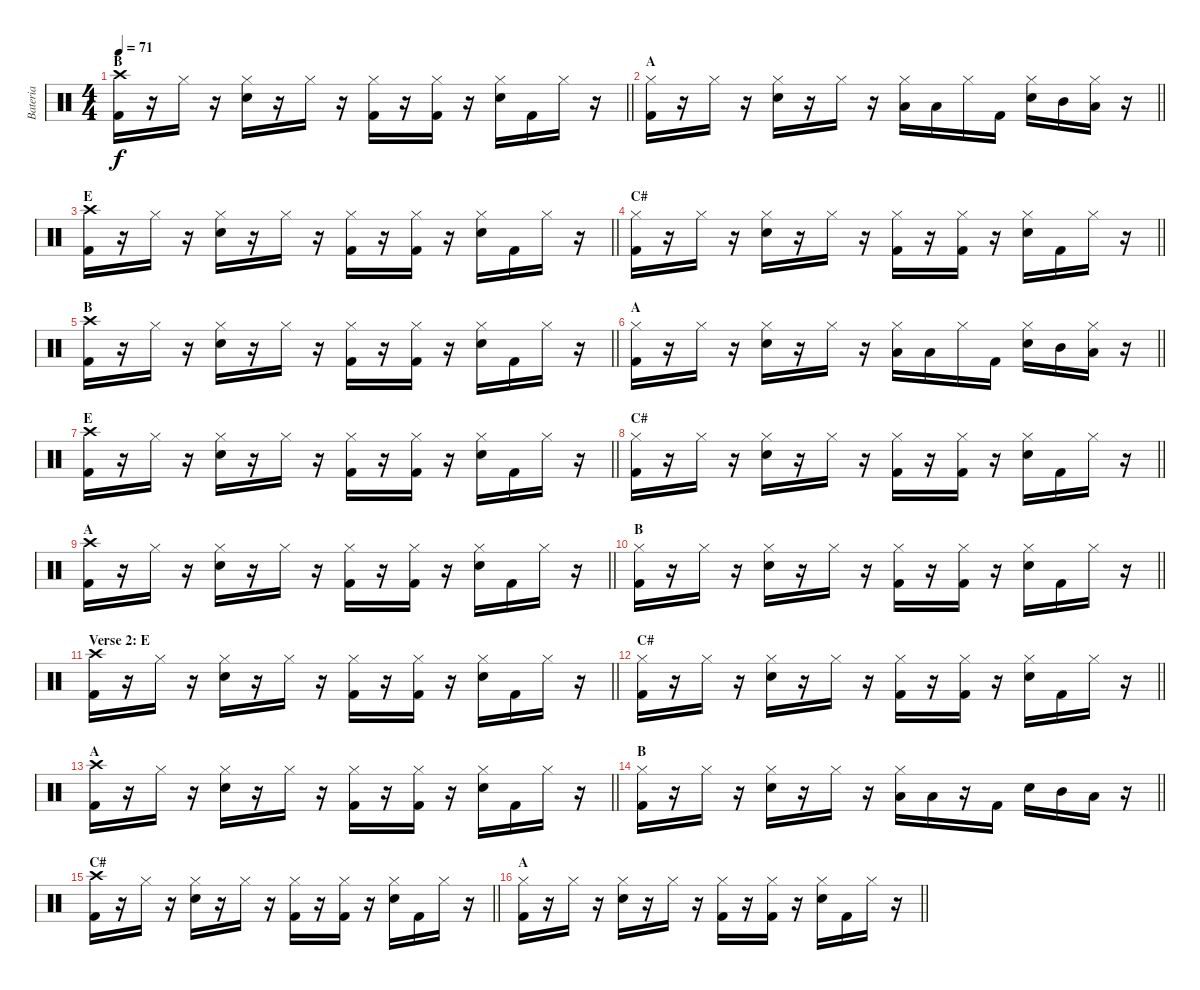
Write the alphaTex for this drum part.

\track ("Bateria" "Bateria") {instrument percussion}
\staff {score}
\articulation defaults
\ts (4 4)
\section ("" "B")
\tempo 71
\clef neutral
\barLineRight lightlight
\ks c
("Crash high (hit)" "Kick (hit) 2").16{dy f} r.16 "Hi-Hat (closed)".16 r.16 ("Hi-Hat (closed)" "Electric Snare (hit)").16 r.16 "Hi-Hat (closed)".16 r.16 ("Hi-Hat (closed)" "Kick (hit) 2").16 r.16 ("Hi-Hat (closed)" "Kick (hit) 2").16 r.16 ("Hi-Hat (closed)" "Electric Snare (hit)").16 "Kick (hit) 2".16 "Hi-Hat (closed)".16 r.16 |
\section ("" "A")
\barLineRight lightlight
("Hi-Hat (closed)" "Kick (hit) 2").16 r.16 "Hi-Hat (closed)".16 r.16 ("Hi-Hat (closed)" "Electric Snare (hit)").16 r.16 "Hi-Hat (closed)".16 r.16 ("Hi-Hat (closed)" "Low Floor Tom (hit)").16 "Low Floor Tom (hit)".16 "Hi-Hat (closed)".16 "Kick (hit) 2".16 ("Hi-Hat (closed)" "Electric Snare (hit)").16 "Mid Tom (hit)".16 ("Hi-Hat (closed)" "Low Floor Tom (hit)").16 r.16 |
\section ("" "E")
\barLineRight lightlight
("Crash high (hit)" "Kick (hit) 2").16 r.16 "Hi-Hat (closed)".16 r.16 ("Hi-Hat (closed)" "Electric Snare (hit)").16 r.16 "Hi-Hat (closed)".16 r.16 ("Hi-Hat (closed)" "Kick (hit) 2").16 r.16 ("Hi-Hat (closed)" "Kick (hit) 2").16 r.16 ("Hi-Hat (closed)" "Electric Snare (hit)").16 "Kick (hit) 2".16 "Hi-Hat (closed)".16 r.16 |
\section ("" "C#")
\barLineRight lightlight
("Hi-Hat (closed)" "Kick (hit) 2").16 r.16 "Hi-Hat (closed)".16 r.16 ("Hi-Hat (closed)" "Electric Snare (hit)").16 r.16 "Hi-Hat (closed)".16 r.16 ("Hi-Hat (closed)" "Kick (hit) 2").16 r.16 ("Hi-Hat (closed)" "Kick (hit) 2").16 r.16 ("Hi-Hat (closed)" "Electric Snare (hit)").16 "Kick (hit) 2".16 "Hi-Hat (closed)".16 r.16 |
\section ("" "B")
\barLineRight lightlight
("Crash high (hit)" "Kick (hit) 2").16 r.16 "Hi-Hat (closed)".16 r.16 ("Hi-Hat (closed)" "Electric Snare (hit)").16 r.16 "Hi-Hat (closed)".16 r.16 ("Hi-Hat (closed)" "Kick (hit) 2").16 r.16 ("Hi-Hat (closed)" "Kick (hit) 2").16 r.16 ("Hi-Hat (closed)" "Electric Snare (hit)").16 "Kick (hit) 2".16 "Hi-Hat (closed)".16 r.16 |
\section ("" "A")
\barLineRight lightlight
("Hi-Hat (closed)" "Kick (hit) 2").16 r.16 "Hi-Hat (closed)".16 r.16 ("Hi-Hat (closed)" "Electric Snare (hit)").16 r.16 "Hi-Hat (closed)".16 r.16 ("Hi-Hat (closed)" "Low Floor Tom (hit)").16 "Low Floor Tom (hit)".16 "Hi-Hat (closed)".16 "Kick (hit) 2".16 ("Hi-Hat (closed)" "Electric Snare (hit)").16 "Mid Tom (hit)".16 ("Hi-Hat (closed)" "Low Floor Tom (hit)").16 r.16 |
\section ("" "E")
\barLineRight lightlight
("Crash high (hit)" "Kick (hit) 2").16 r.16 "Hi-Hat (closed)".16 r.16 ("Hi-Hat (closed)" "Electric Snare (hit)").16 r.16 "Hi-Hat (closed)".16 r.16 ("Hi-Hat (closed)" "Kick (hit) 2").16 r.16 ("Hi-Hat (closed)" "Kick (hit) 2").16 r.16 ("Hi-Hat (closed)" "Electric Snare (hit)").16 "Kick (hit) 2".16 "Hi-Hat (closed)".16 r.16 |
\section ("" "C#")
\barLineRight lightlight
("Hi-Hat (closed)" "Kick (hit) 2").16 r.16 "Hi-Hat (closed)".16 r.16 ("Hi-Hat (closed)" "Electric Snare (hit)").16 r.16 "Hi-Hat (closed)".16 r.16 ("Hi-Hat (closed)" "Kick (hit) 2").16 r.16 ("Hi-Hat (closed)" "Kick (hit) 2").16 r.16 ("Hi-Hat (closed)" "Electric Snare (hit)").16 "Kick (hit) 2".16 "Hi-Hat (closed)".16 r.16 |
\section ("" "A")
\barLineRight lightlight
("Crash high (hit)" "Kick (hit) 2").16 r.16 "Hi-Hat (closed)".16 r.16 ("Hi-Hat (closed)" "Electric Snare (hit)").16 r.16 "Hi-Hat (closed)".16 r.16 ("Hi-Hat (closed)" "Kick (hit) 2").16 r.16 ("Hi-Hat (closed)" "Kick (hit) 2").16 r.16 ("Hi-Hat (closed)" "Electric Snare (hit)").16 "Kick (hit) 2".16 "Hi-Hat (closed)".16 r.16 |
\section ("" "B")
\barLineRight lightlight
("Hi-Hat (closed)" "Kick (hit) 2").16 r.16 "Hi-Hat (closed)".16 r.16 ("Hi-Hat (closed)" "Electric Snare (hit)").16 r.16 "Hi-Hat (closed)".16 r.16 ("Hi-Hat (closed)" "Kick (hit) 2").16 r.16 ("Hi-Hat (closed)" "Kick (hit) 2").16 r.16 ("Hi-Hat (closed)" "Electric Snare (hit)").16 "Kick (hit) 2".16 "Hi-Hat (closed)".16 r.16 |
\section ("" "Verse 2: E")
\barLineRight lightlight
("Crash high (hit)" "Kick (hit) 2").16 r.16 "Hi-Hat (closed)".16 r.16 ("Hi-Hat (closed)" "Electric Snare (hit)").16 r.16 "Hi-Hat (closed)".16 r.16 ("Hi-Hat (closed)" "Kick (hit) 2").16 r.16 ("Hi-Hat (closed)" "Kick (hit) 2").16 r.16 ("Hi-Hat (closed)" "Electric Snare (hit)").16 "Kick (hit) 2".16 "Hi-Hat (closed)".16 r.16 |
\section ("" "C#")
\barLineRight lightlight
("Hi-Hat (closed)" "Kick (hit) 2").16 r.16 "Hi-Hat (closed)".16 r.16 ("Hi-Hat (closed)" "Electric Snare (hit)").16 r.16 "Hi-Hat (closed)".16 r.16 ("Hi-Hat (closed)" "Kick (hit) 2").16 r.16 ("Hi-Hat (closed)" "Kick (hit) 2").16 r.16 ("Hi-Hat (closed)" "Electric Snare (hit)").16 "Kick (hit) 2".16 "Hi-Hat (closed)".16 r.16 |
\section ("" "A")
\barLineRight lightlight
("Crash high (hit)" "Kick (hit) 2").16 r.16 "Hi-Hat (closed)".16 r.16 ("Hi-Hat (closed)" "Electric Snare (hit)").16 r.16 "Hi-Hat (closed)".16 r.16 ("Hi-Hat (closed)" "Kick (hit) 2").16 r.16 ("Hi-Hat (closed)" "Kick (hit) 2").16 r.16 ("Hi-Hat (closed)" "Electric Snare (hit)").16 "Kick (hit) 2".16 "Hi-Hat (closed)".16 r.16 |
\section ("" "B")
\barLineRight lightlight
("Hi-Hat (closed)" "Kick (hit) 2").16 r.16 "Hi-Hat (closed)".16 r.16 ("Hi-Hat (closed)" "Electric Snare (hit)").16 r.16 "Hi-Hat (closed)".16 r.16 ("Hi-Hat (closed)" "Low Floor Tom (hit)").16 "Low Floor Tom (hit)".16 r.16 "Kick (hit) 2".16 "Electric Snare (hit)".16 "Mid Tom (hit)".16 "Low Tom (hit)".16 r.16 |
\section ("" "C#")
\barLineRight lightlight
("Crash high (hit)" "Kick (hit) 2").16 r.16 "Hi-Hat (closed)".16 r.16 ("Hi-Hat (closed)" "Electric Snare (hit)").16 r.16 "Hi-Hat (closed)".16 r.16 ("Hi-Hat (closed)" "Kick (hit) 2").16 r.16 ("Hi-Hat (closed)" "Kick (hit) 2").16 r.16 ("Hi-Hat (closed)" "Electric Snare (hit)").16 "Kick (hit) 2".16 "Hi-Hat (closed)".16 r.16 |
\section ("" "A")
\barLineRight lightlight
("Hi-Hat (closed)" "Kick (hit) 2").16 r.16 "Hi-Hat (closed)".16 r.16 ("Hi-Hat (closed)" "Electric Snare (hit)").16 r.16 "Hi-Hat (closed)".16 r.16 ("Hi-Hat (closed)" "Kick (hit) 2").16 r.16 ("Hi-Hat (closed)" "Kick (hit) 2").16 r.16 ("Hi-Hat (closed)" "Electric Snare (hit)").16 "Kick (hit) 2".16 "Hi-Hat (closed)".16 r.16
